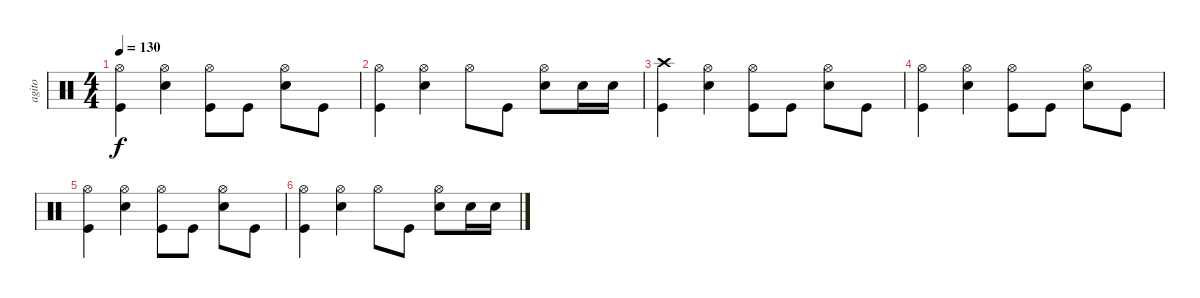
\track ("agito" "agito") {instrument percussion}
\staff {score}
\articulation defaults
\ts (4 4)
\tempo 130
\clef neutral
\ks c
("Hi-Hat (open)" "Kick (hit)").4{dy f} ("Hi-Hat (open)" "Snare (hit) 2").4 ("Hi-Hat (open)" "Kick (hit)").8 "Kick (hit)".8 ("Hi-Hat (open)" "Snare (hit) 2").8 "Kick (hit)".8 |
("Hi-Hat (open)" "Kick (hit)").4 ("Hi-Hat (open)" "Snare (hit) 2").4 "Hi-Hat (open)".8 "Kick (hit)".8 ("Hi-Hat (open)" "Snare (hit) 2").8 "Snare (hit) 2".16 "Snare (hit) 2".16 |
("Crash high (hit)" "Kick (hit)").4 ("Hi-Hat (open)" "Snare (hit) 2").4 ("Hi-Hat (open)" "Kick (hit)").8 "Kick (hit)".8 ("Hi-Hat (open)" "Snare (hit) 2").8 "Kick (hit)".8 |
("Hi-Hat (open)" "Kick (hit)").4 ("Hi-Hat (open)" "Snare (hit) 2").4 ("Hi-Hat (open)" "Kick (hit)").8 "Kick (hit)".8 ("Hi-Hat (open)" "Snare (hit) 2").8 "Kick (hit)".8 |
("Hi-Hat (open)" "Kick (hit)").4 ("Hi-Hat (open)" "Snare (hit) 2").4 ("Hi-Hat (open)" "Kick (hit)").8 "Kick (hit)".8 ("Hi-Hat (open)" "Snare (hit) 2").8 "Kick (hit)".8 |
("Hi-Hat (open)" "Kick (hit)").4 ("Hi-Hat (open)" "Snare (hit) 2").4 "Hi-Hat (open)".8 "Kick (hit)".8 ("Hi-Hat (open)" "Snare (hit) 2").8 "Snare (hit) 2".16 "Snare (hit) 2".16
